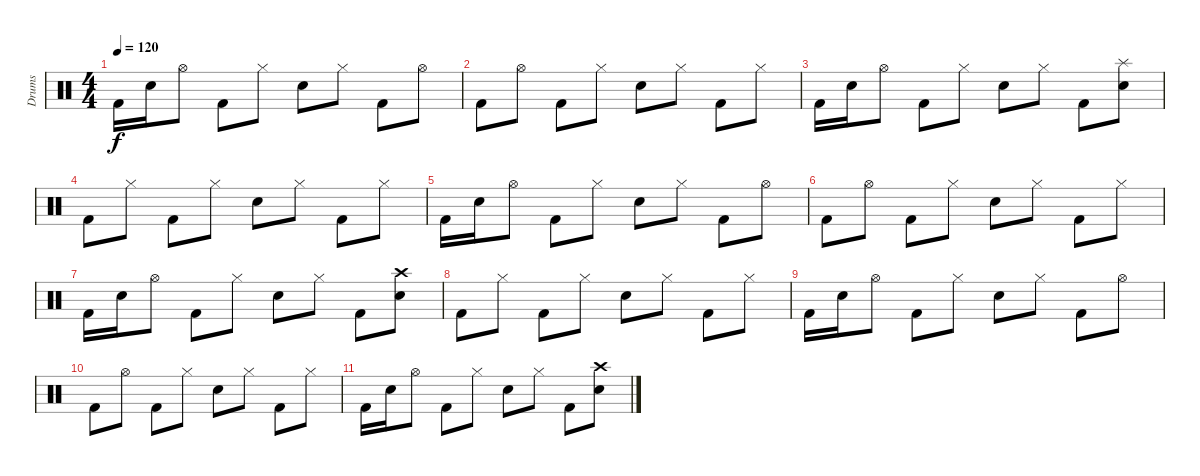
\track ("Drums" "Drums") {instrument percussion}
\staff {score}
\articulation defaults
\ts (4 4)
\tempo 120
\clef neutral
\ks c "Kick (hit) 2".16{dy f} "Snare (hit) 2".16 "Hi-Hat (open)".8 "Kick (hit) 2".8 "Hi-Hat (closed)".8 "Snare (hit) 2".8 "Hi-Hat (closed)".8 "Kick (hit) 2".8 "Hi-Hat (open)".8
|
"Kick (hit) 2".8 "Hi-Hat (open)".8 "Kick (hit) 2".8 "Hi-Hat (closed)".8 "Snare (hit) 2".8 "Hi-Hat (closed)".8 "Kick (hit) 2".8 "Hi-Hat (closed)".8 |
"Kick (hit) 2".16 "Snare (hit) 2".16 "Hi-Hat (open)".8 "Kick (hit) 2".8 "Hi-Hat (closed)".8 "Snare (hit) 2".8 "Hi-Hat (closed)".8 "Kick (hit) 2".8 ("Splash (hit)" "Snare (hit) 2").8 |
"Kick (hit) 2".8{volume 12} "Hi-Hat (closed)".8 "Kick (hit) 2".8 "Hi-Hat (closed)".8 "Snare (hit) 2".8 "Hi-Hat (closed)".8 "Kick (hit) 2".8 "Hi-Hat (closed)".8 |
"Kick (hit) 2".16 "Snare (hit) 2".16 "Hi-Hat (open)".8 "Kick (hit) 2".8 "Hi-Hat (closed)".8 "Snare (hit) 2".8 "Hi-Hat (closed)".8 "Kick (hit) 2".8 "Hi-Hat (open)".8 |
"Kick (hit) 2".8 "Hi-Hat (open)".8 "Kick (hit) 2".8 "Hi-Hat (closed)".8 "Snare (hit) 2".8 "Hi-Hat (closed)".8 "Kick (hit) 2".8 "Hi-Hat (closed)".8 |
"Kick (hit) 2".16 "Snare (hit) 2".16 "Hi-Hat (open)".8 "Kick (hit) 2".8 "Hi-Hat (closed)".8 "Snare (hit) 2".8 "Hi-Hat (closed)".8 "Kick (hit) 2".8 ("Crash high (hit)" "Snare (hit) 2").8 |
"Kick (hit) 2".8{volume 10} "Hi-Hat (closed)".8 "Kick (hit) 2".8 "Hi-Hat (closed)".8 "Snare (hit) 2".8 "Hi-Hat (closed)".8 "Kick (hit) 2".8 "Hi-Hat (closed)".8 |
"Kick (hit) 2".16 "Snare (hit) 2".16 "Hi-Hat (open)".8 "Kick (hit) 2".8 "Hi-Hat (closed)".8 "Snare (hit) 2".8 "Hi-Hat (closed)".8 "Kick (hit) 2".8 "Hi-Hat (open)".8 |
"Kick (hit) 2".8 "Hi-Hat (open)".8 "Kick (hit) 2".8 "Hi-Hat (closed)".8 "Snare (hit) 2".8 "Hi-Hat (closed)".8 "Kick (hit) 2".8 "Hi-Hat (closed)".8 |
"Kick (hit) 2".16 "Snare (hit) 2".16 "Hi-Hat (open)".8 "Kick (hit) 2".8 "Hi-Hat (closed)".8 "Snare (hit) 2".8 "Hi-Hat (closed)".8 "Kick (hit) 2".8 ("Crash high (hit)" "Snare (hit) 2").8
